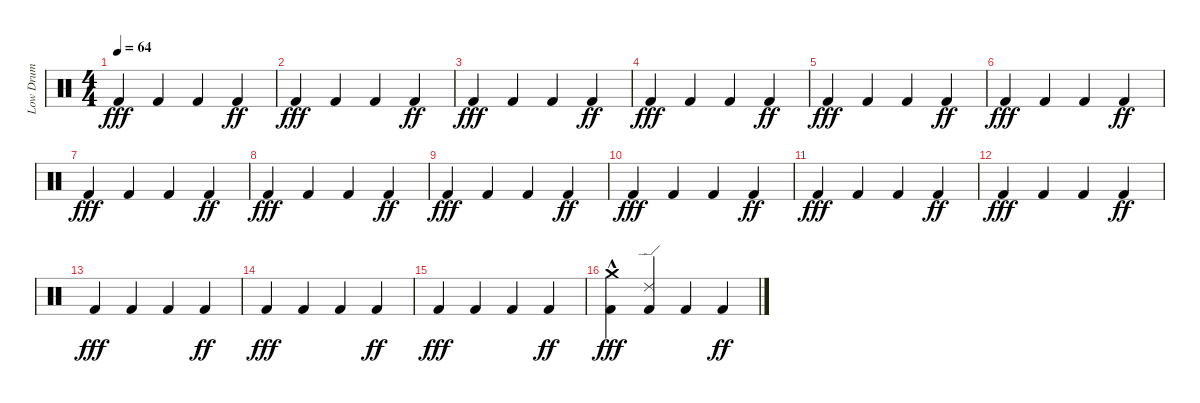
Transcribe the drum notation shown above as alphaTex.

\track ("Low Drum" "Low Drum") {instrument percussion}
\staff {score}
\articulation defaults
\ts (4 4)
\tempo 64
\clef neutral
\ks c "Kick (hit) 2".4{dy fff} "Kick (hit) 2".4 "Kick (hit) 2".4 "Kick (hit) 2".4{dy ff}
|
"Kick (hit) 2".4{dy fff} "Kick (hit) 2".4 "Kick (hit) 2".4 "Kick (hit) 2".4{dy ff} |
"Kick (hit) 2".4{dy fff} "Kick (hit) 2".4 "Kick (hit) 2".4 "Kick (hit) 2".4{dy ff} |
"Kick (hit) 2".4{dy fff} "Kick (hit) 2".4 "Kick (hit) 2".4 "Kick (hit) 2".4{dy ff} |
"Kick (hit) 2".4{dy fff} "Kick (hit) 2".4 "Kick (hit) 2".4 "Kick (hit) 2".4{dy ff} |
"Kick (hit) 2".4{dy fff} "Kick (hit) 2".4 "Kick (hit) 2".4 "Kick (hit) 2".4{dy ff} |
"Kick (hit) 2".4{dy fff} "Kick (hit) 2".4 "Kick (hit) 2".4 "Kick (hit) 2".4{dy ff} |
"Kick (hit) 2".4{dy fff} "Kick (hit) 2".4 "Kick (hit) 2".4 "Kick (hit) 2".4{dy ff} |
"Kick (hit) 2".4{dy fff} "Kick (hit) 2".4 "Kick (hit) 2".4 "Kick (hit) 2".4{dy ff} |
"Kick (hit) 2".4{dy fff} "Kick (hit) 2".4 "Kick (hit) 2".4 "Kick (hit) 2".4{dy ff} |
"Kick (hit) 2".4{dy fff} "Kick (hit) 2".4 "Kick (hit) 2".4 "Kick (hit) 2".4{dy ff} |
"Kick (hit) 2".4{dy fff} "Kick (hit) 2".4 "Kick (hit) 2".4 "Kick (hit) 2".4{dy ff} |
"Kick (hit) 2".4{dy fff} "Kick (hit) 2".4 "Kick (hit) 2".4 "Kick (hit) 2".4{dy ff} |
"Kick (hit) 2".4{dy fff} "Kick (hit) 2".4 "Kick (hit) 2".4 "Kick (hit) 2".4{dy ff} |
"Kick (hit) 2".4{dy fff} "Kick (hit) 2".4 "Kick (hit) 2".4 "Kick (hit) 2".4{dy ff} |
("Kick (hit) 2" "Crash medium (hit)"{hac}).4{dy fff} ("Kick (hit) 2" "Ride (edge) 2").4 "Kick (hit) 2".4 "Kick (hit) 2".4{dy ff}
